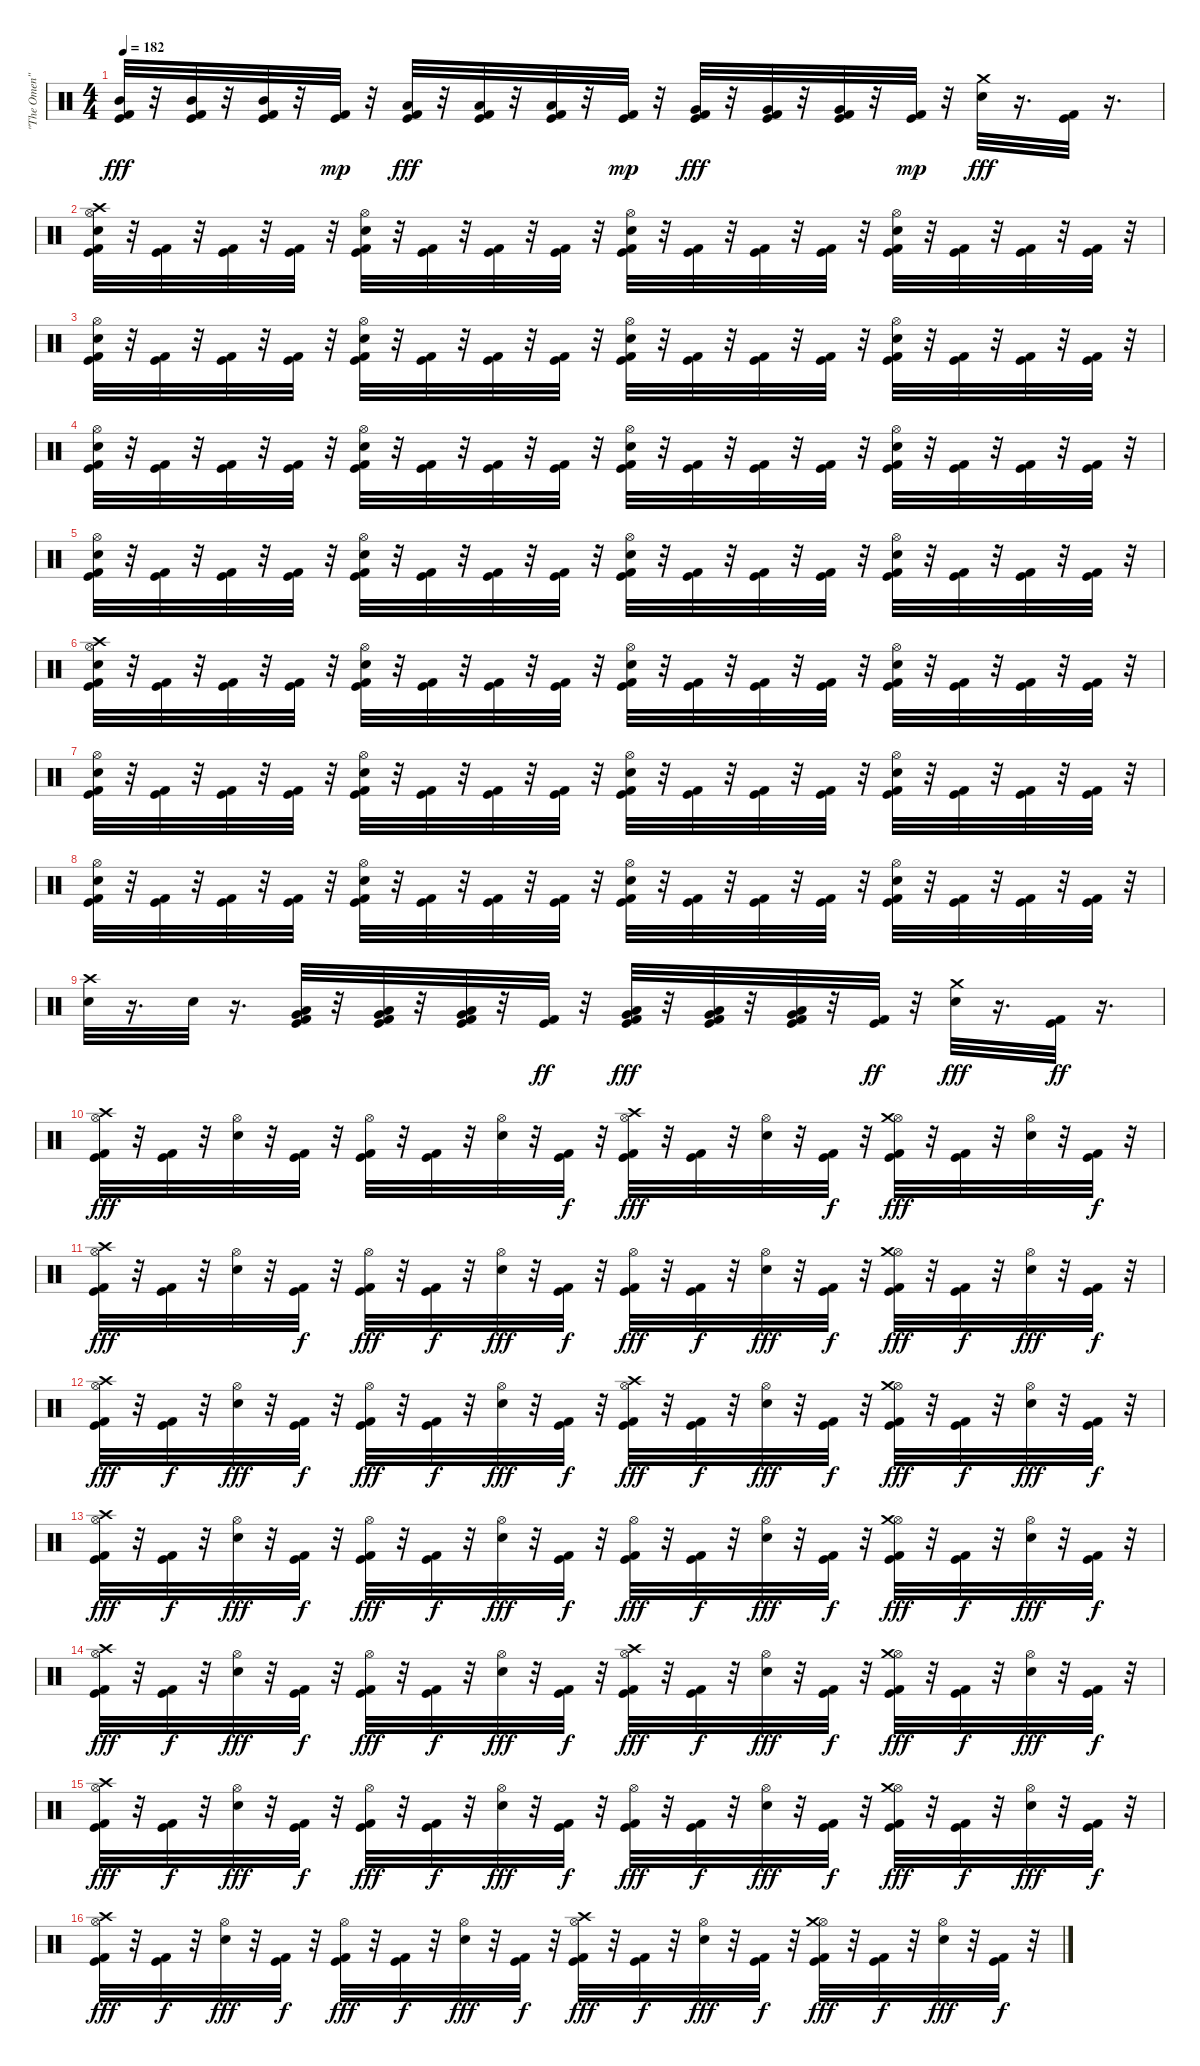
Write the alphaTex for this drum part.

\track ("\"The Omen\"" "\"The Omen\"") {instrument percussion}
\staff {score}
\articulation defaults
\ts (4 4)
\tempo 182
\clef neutral
\ks c
("Kick (hit)" "Kick (hit) 2" "Mid Tom (hit)").32{dy fff} r.32 ("Kick (hit)" "Kick (hit) 2" "Mid Tom (hit)").32 r.32 ("Kick (hit)" "Kick (hit) 2" "Mid Tom (hit)").32 r.32 ("Kick (hit)" "Kick (hit) 2").32{dy mp} r.32 ("Kick (hit)" "Kick (hit) 2" "Low Tom (hit)").32{dy fff} r.32 ("Kick (hit)" "Kick (hit) 2" "Low Tom (hit)").32 r.32 ("Kick (hit)" "Kick (hit) 2" "Low Tom (hit)").32 r.32 ("Kick (hit)" "Kick (hit) 2").32{dy mp} r.32 ("Kick (hit)" "Kick (hit) 2" "Very Low Tom (hit)").32{dy fff} r.32 ("Kick (hit)" "Kick (hit) 2" "Very Low Tom (hit)").32 r.32 ("Kick (hit)" "Kick (hit) 2" "Very Low Tom (hit)").32 r.32 ("Kick (hit)" "Kick (hit) 2").32{dy mp} r.32 ("Snare (hit) 2" "Crash medium (hit)").32{dy fff} r.16{d} ("Kick (hit)" "Kick (hit) 2").32 r.16{d} |
("Kick (hit)" "Kick (hit) 2" "Snare (hit) 2" "Hi-Hat (open)" "Crash high (hit)").32 r.32 ("Kick (hit)" "Kick (hit) 2").32 r.32 ("Kick (hit)" "Kick (hit) 2").32 r.32 ("Kick (hit)" "Kick (hit) 2").32 r.32 ("Kick (hit)" "Kick (hit) 2" "Snare (hit) 2" "Hi-Hat (open)").32 r.32 ("Kick (hit)" "Kick (hit) 2").32 r.32 ("Kick (hit)" "Kick (hit) 2").32 r.32 ("Kick (hit)" "Kick (hit) 2").32 r.32 ("Kick (hit)" "Kick (hit) 2" "Snare (hit) 2" "Hi-Hat (open)").32 r.32 ("Kick (hit)" "Kick (hit) 2").32 r.32 ("Kick (hit)" "Kick (hit) 2").32 r.32 ("Kick (hit)" "Kick (hit) 2").32 r.32 ("Kick (hit)" "Kick (hit) 2" "Snare (hit) 2" "Hi-Hat (open)").32 r.32 ("Kick (hit)" "Kick (hit) 2").32 r.32 ("Kick (hit)" "Kick (hit) 2").32 r.32 ("Kick (hit)" "Kick (hit) 2").32 r.32 |
("Kick (hit)" "Kick (hit) 2" "Snare (hit) 2" "Hi-Hat (open)").32 r.32 ("Kick (hit)" "Kick (hit) 2").32 r.32 ("Kick (hit)" "Kick (hit) 2").32 r.32 ("Kick (hit)" "Kick (hit) 2").32 r.32 ("Kick (hit)" "Kick (hit) 2" "Snare (hit) 2" "Hi-Hat (open)").32 r.32 ("Kick (hit)" "Kick (hit) 2").32 r.32 ("Kick (hit)" "Kick (hit) 2").32 r.32 ("Kick (hit)" "Kick (hit) 2").32 r.32 ("Kick (hit)" "Kick (hit) 2" "Snare (hit) 2" "Hi-Hat (open)").32 r.32 ("Kick (hit)" "Kick (hit) 2").32 r.32 ("Kick (hit)" "Kick (hit) 2").32 r.32 ("Kick (hit)" "Kick (hit) 2").32 r.32 ("Kick (hit)" "Kick (hit) 2" "Snare (hit) 2" "Hi-Hat (open)").32 r.32 ("Kick (hit)" "Kick (hit) 2").32 r.32 ("Kick (hit)" "Kick (hit) 2").32 r.32 ("Kick (hit)" "Kick (hit) 2").32 r.32 |
("Kick (hit)" "Kick (hit) 2" "Snare (hit) 2" "Hi-Hat (open)").32 r.32 ("Kick (hit)" "Kick (hit) 2").32 r.32 ("Kick (hit)" "Kick (hit) 2").32 r.32 ("Kick (hit)" "Kick (hit) 2").32 r.32 ("Kick (hit)" "Kick (hit) 2" "Snare (hit) 2" "Hi-Hat (open)").32 r.32 ("Kick (hit)" "Kick (hit) 2").32 r.32 ("Kick (hit)" "Kick (hit) 2").32 r.32 ("Kick (hit)" "Kick (hit) 2").32 r.32 ("Kick (hit)" "Kick (hit) 2" "Snare (hit) 2" "Hi-Hat (open)").32 r.32 ("Kick (hit)" "Kick (hit) 2").32 r.32 ("Kick (hit)" "Kick (hit) 2").32 r.32 ("Kick (hit)" "Kick (hit) 2").32 r.32 ("Kick (hit)" "Kick (hit) 2" "Snare (hit) 2" "Hi-Hat (open)").32 r.32 ("Kick (hit)" "Kick (hit) 2").32 r.32 ("Kick (hit)" "Kick (hit) 2").32 r.32 ("Kick (hit)" "Kick (hit) 2").32 r.32 |
("Kick (hit)" "Kick (hit) 2" "Snare (hit) 2" "Hi-Hat (open)").32 r.32 ("Kick (hit)" "Kick (hit) 2").32 r.32 ("Kick (hit)" "Kick (hit) 2").32 r.32 ("Kick (hit)" "Kick (hit) 2").32 r.32 ("Kick (hit)" "Kick (hit) 2" "Snare (hit) 2" "Hi-Hat (open)").32 r.32 ("Kick (hit)" "Kick (hit) 2").32 r.32 ("Kick (hit)" "Kick (hit) 2").32 r.32 ("Kick (hit)" "Kick (hit) 2").32 r.32 ("Kick (hit)" "Kick (hit) 2" "Snare (hit) 2" "Hi-Hat (open)").32 r.32 ("Kick (hit)" "Kick (hit) 2").32 r.32 ("Kick (hit)" "Kick (hit) 2").32 r.32 ("Kick (hit)" "Kick (hit) 2").32 r.32 ("Kick (hit)" "Kick (hit) 2" "Snare (hit) 2" "Hi-Hat (open)").32 r.32 ("Kick (hit)" "Kick (hit) 2").32 r.32 ("Kick (hit)" "Kick (hit) 2").32 r.32 ("Kick (hit)" "Kick (hit) 2").32 r.32 |
("Kick (hit)" "Kick (hit) 2" "Snare (hit) 2" "Hi-Hat (open)" "Crash high (hit)").32 r.32 ("Kick (hit)" "Kick (hit) 2").32 r.32 ("Kick (hit)" "Kick (hit) 2").32 r.32 ("Kick (hit)" "Kick (hit) 2").32 r.32 ("Kick (hit)" "Kick (hit) 2" "Snare (hit) 2" "Hi-Hat (open)").32 r.32 ("Kick (hit)" "Kick (hit) 2").32 r.32 ("Kick (hit)" "Kick (hit) 2").32 r.32 ("Kick (hit)" "Kick (hit) 2").32 r.32 ("Kick (hit)" "Kick (hit) 2" "Snare (hit) 2" "Hi-Hat (open)").32 r.32 ("Kick (hit)" "Kick (hit) 2").32 r.32 ("Kick (hit)" "Kick (hit) 2").32 r.32 ("Kick (hit)" "Kick (hit) 2").32 r.32 ("Kick (hit)" "Kick (hit) 2" "Snare (hit) 2" "Hi-Hat (open)").32 r.32 ("Kick (hit)" "Kick (hit) 2").32 r.32 ("Kick (hit)" "Kick (hit) 2").32 r.32 ("Kick (hit)" "Kick (hit) 2").32 r.32 |
("Kick (hit)" "Kick (hit) 2" "Snare (hit) 2" "Hi-Hat (open)").32 r.32 ("Kick (hit)" "Kick (hit) 2").32 r.32 ("Kick (hit)" "Kick (hit) 2").32 r.32 ("Kick (hit)" "Kick (hit) 2").32 r.32 ("Kick (hit)" "Kick (hit) 2" "Snare (hit) 2" "Hi-Hat (open)").32 r.32 ("Kick (hit)" "Kick (hit) 2").32 r.32 ("Kick (hit)" "Kick (hit) 2").32 r.32 ("Kick (hit)" "Kick (hit) 2").32 r.32 ("Kick (hit)" "Kick (hit) 2" "Snare (hit) 2" "Hi-Hat (open)").32 r.32 ("Kick (hit)" "Kick (hit) 2").32 r.32 ("Kick (hit)" "Kick (hit) 2").32 r.32 ("Kick (hit)" "Kick (hit) 2").32 r.32 ("Kick (hit)" "Kick (hit) 2" "Snare (hit) 2" "Hi-Hat (open)").32 r.32 ("Kick (hit)" "Kick (hit) 2").32 r.32 ("Kick (hit)" "Kick (hit) 2").32 r.32 ("Kick (hit)" "Kick (hit) 2").32 r.32 |
("Kick (hit)" "Kick (hit) 2" "Snare (hit) 2" "Hi-Hat (open)").32 r.32 ("Kick (hit)" "Kick (hit) 2").32 r.32 ("Kick (hit)" "Kick (hit) 2").32 r.32 ("Kick (hit)" "Kick (hit) 2").32 r.32 ("Kick (hit)" "Kick (hit) 2" "Snare (hit) 2" "Hi-Hat (open)").32 r.32 ("Kick (hit)" "Kick (hit) 2").32 r.32 ("Kick (hit)" "Kick (hit) 2").32 r.32 ("Kick (hit)" "Kick (hit) 2").32 r.32 ("Kick (hit)" "Kick (hit) 2" "Snare (hit) 2" "Hi-Hat (open)").32 r.32 ("Kick (hit)" "Kick (hit) 2").32 r.32 ("Kick (hit)" "Kick (hit) 2").32 r.32 ("Kick (hit)" "Kick (hit) 2").32 r.32 ("Kick (hit)" "Kick (hit) 2" "Snare (hit) 2" "Hi-Hat (open)").32 r.32 ("Kick (hit)" "Kick (hit) 2").32 r.32 ("Kick (hit)" "Kick (hit) 2").32 r.32 ("Kick (hit)" "Kick (hit) 2").32 r.32 |
("Snare (hit) 2" "Crash high (hit)").32 r.16{d} "Snare (hit) 2".32 r.16{d} ("Kick (hit)" "Kick (hit) 2" "Very Low Tom (hit)" "Low Tom (hit)").32 r.32 ("Kick (hit)" "Kick (hit) 2" "Very Low Tom (hit)" "Low Tom (hit)").32 r.32 ("Kick (hit)" "Kick (hit) 2" "Very Low Tom (hit)" "Low Tom (hit)").32 r.32 ("Kick (hit)" "Kick (hit) 2").32{dy ff} r.32 ("Kick (hit)" "Kick (hit) 2" "Low Floor Tom (hit)" "Very Low Tom (hit)").32{dy fff} r.32 ("Kick (hit)" "Kick (hit) 2" "Low Floor Tom (hit)" "Very Low Tom (hit)").32 r.32 ("Kick (hit)" "Kick (hit) 2" "Low Floor Tom (hit)" "Very Low Tom (hit)").32 r.32 ("Kick (hit)" "Kick (hit) 2").32{dy ff} r.32 ("Snare (hit) 2" "Crash medium (hit)").32{dy fff} r.16{d} ("Kick (hit)" "Kick (hit) 2").32{dy ff} r.16{d} |
("Kick (hit)" "Kick (hit) 2" "Hi-Hat (open)" "Crash high (hit)").32{dy fff} r.32 ("Kick (hit)" "Kick (hit) 2").32 r.32 ("Snare (hit) 2" "Hi-Hat (open)").32 r.32 ("Kick (hit)" "Kick (hit) 2").32 r.32 ("Kick (hit)" "Kick (hit) 2" "Hi-Hat (open)").32 r.32 ("Kick (hit)" "Kick (hit) 2").32 r.32 ("Snare (hit) 2" "Hi-Hat (open)").32 r.32 ("Kick (hit)" "Kick (hit) 2").32{dy f} r.32 ("Kick (hit)" "Kick (hit) 2" "Hi-Hat (open)" "Crash high (hit)").32{dy fff} r.32 ("Kick (hit)" "Kick (hit) 2").32 r.32 ("Snare (hit) 2" "Hi-Hat (open)").32 r.32 ("Kick (hit)" "Kick (hit) 2").32{dy f} r.32 ("Kick (hit)" "Kick (hit) 2" "Hi-Hat (open)" "Crash medium (hit)").32{dy fff} r.32 ("Kick (hit)" "Kick (hit) 2").32 r.32 ("Snare (hit) 2" "Hi-Hat (open)").32 r.32 ("Kick (hit)" "Kick (hit) 2").32{dy f} r.32 |
("Kick (hit)" "Kick (hit) 2" "Hi-Hat (open)" "Crash high (hit)").32{dy fff} r.32 ("Kick (hit)" "Kick (hit) 2").32 r.32 ("Snare (hit) 2" "Hi-Hat (open)").32 r.32 ("Kick (hit)" "Kick (hit) 2").32{dy f} r.32 ("Kick (hit)" "Kick (hit) 2" "Hi-Hat (open)").32{dy fff} r.32 ("Kick (hit)" "Kick (hit) 2").32{dy f} r.32 ("Snare (hit) 2" "Hi-Hat (open)").32{dy fff} r.32 ("Kick (hit)" "Kick (hit) 2").32{dy f} r.32 ("Kick (hit)" "Kick (hit) 2" "Hi-Hat (open)").32{dy fff} r.32 ("Kick (hit)" "Kick (hit) 2").32{dy f} r.32 ("Snare (hit) 2" "Hi-Hat (open)").32{dy fff} r.32 ("Kick (hit)" "Kick (hit) 2").32{dy f} r.32 ("Kick (hit)" "Kick (hit) 2" "Hi-Hat (open)" "Crash medium (hit)").32{dy fff} r.32 ("Kick (hit)" "Kick (hit) 2").32{dy f} r.32 ("Snare (hit) 2" "Hi-Hat (open)").32{dy fff} r.32 ("Kick (hit)" "Kick (hit) 2").32{dy f} r.32 |
("Kick (hit)" "Kick (hit) 2" "Hi-Hat (open)" "Crash high (hit)").32{dy fff} r.32 ("Kick (hit)" "Kick (hit) 2").32{dy f} r.32 ("Snare (hit) 2" "Hi-Hat (open)").32{dy fff} r.32 ("Kick (hit)" "Kick (hit) 2").32{dy f} r.32 ("Kick (hit)" "Kick (hit) 2" "Hi-Hat (open)").32{dy fff} r.32 ("Kick (hit)" "Kick (hit) 2").32{dy f} r.32 ("Snare (hit) 2" "Hi-Hat (open)").32{dy fff} r.32 ("Kick (hit)" "Kick (hit) 2").32{dy f} r.32 ("Kick (hit)" "Kick (hit) 2" "Hi-Hat (open)" "Crash high (hit)").32{dy fff} r.32 ("Kick (hit)" "Kick (hit) 2").32{dy f} r.32 ("Snare (hit) 2" "Hi-Hat (open)").32{dy fff} r.32 ("Kick (hit)" "Kick (hit) 2").32{dy f} r.32 ("Kick (hit)" "Kick (hit) 2" "Hi-Hat (open)" "Crash medium (hit)").32{dy fff} r.32 ("Kick (hit)" "Kick (hit) 2").32{dy f} r.32 ("Snare (hit) 2" "Hi-Hat (open)").32{dy fff} r.32 ("Kick (hit)" "Kick (hit) 2").32{dy f} r.32 |
("Kick (hit)" "Kick (hit) 2" "Hi-Hat (open)" "Crash high (hit)").32{dy fff} r.32 ("Kick (hit)" "Kick (hit) 2").32{dy f} r.32 ("Snare (hit) 2" "Hi-Hat (open)").32{dy fff} r.32 ("Kick (hit)" "Kick (hit) 2").32{dy f} r.32 ("Kick (hit)" "Kick (hit) 2" "Hi-Hat (open)").32{dy fff} r.32 ("Kick (hit)" "Kick (hit) 2").32{dy f} r.32 ("Snare (hit) 2" "Hi-Hat (open)").32{dy fff} r.32 ("Kick (hit)" "Kick (hit) 2").32{dy f} r.32 ("Kick (hit)" "Kick (hit) 2" "Hi-Hat (open)").32{dy fff} r.32 ("Kick (hit)" "Kick (hit) 2").32{dy f} r.32 ("Snare (hit) 2" "Hi-Hat (open)").32{dy fff} r.32 ("Kick (hit)" "Kick (hit) 2").32{dy f} r.32 ("Kick (hit)" "Kick (hit) 2" "Hi-Hat (open)" "Crash medium (hit)").32{dy fff} r.32 ("Kick (hit)" "Kick (hit) 2").32{dy f} r.32 ("Snare (hit) 2" "Hi-Hat (open)").32{dy fff} r.32 ("Kick (hit)" "Kick (hit) 2").32{dy f} r.32 |
("Kick (hit)" "Kick (hit) 2" "Hi-Hat (open)" "Crash high (hit)").32{dy fff} r.32 ("Kick (hit)" "Kick (hit) 2").32{dy f} r.32 ("Snare (hit) 2" "Hi-Hat (open)").32{dy fff} r.32 ("Kick (hit)" "Kick (hit) 2").32{dy f} r.32 ("Kick (hit)" "Kick (hit) 2" "Hi-Hat (open)").32{dy fff} r.32 ("Kick (hit)" "Kick (hit) 2").32{dy f} r.32 ("Snare (hit) 2" "Hi-Hat (open)").32{dy fff} r.32 ("Kick (hit)" "Kick (hit) 2").32{dy f} r.32 ("Kick (hit)" "Kick (hit) 2" "Hi-Hat (open)" "Crash high (hit)").32{dy fff} r.32 ("Kick (hit)" "Kick (hit) 2").32{dy f} r.32 ("Snare (hit) 2" "Hi-Hat (open)").32{dy fff} r.32 ("Kick (hit)" "Kick (hit) 2").32{dy f} r.32 ("Kick (hit)" "Kick (hit) 2" "Hi-Hat (open)" "Crash medium (hit)").32{dy fff} r.32 ("Kick (hit)" "Kick (hit) 2").32{dy f} r.32 ("Snare (hit) 2" "Hi-Hat (open)").32{dy fff} r.32 ("Kick (hit)" "Kick (hit) 2").32{dy f} r.32 |
("Kick (hit)" "Kick (hit) 2" "Hi-Hat (open)" "Crash high (hit)").32{dy fff} r.32 ("Kick (hit)" "Kick (hit) 2").32{dy f} r.32 ("Snare (hit) 2" "Hi-Hat (open)").32{dy fff} r.32 ("Kick (hit)" "Kick (hit) 2").32{dy f} r.32 ("Kick (hit)" "Kick (hit) 2" "Hi-Hat (open)").32{dy fff} r.32 ("Kick (hit)" "Kick (hit) 2").32{dy f} r.32 ("Snare (hit) 2" "Hi-Hat (open)").32{dy fff} r.32 ("Kick (hit)" "Kick (hit) 2").32{dy f} r.32 ("Kick (hit)" "Kick (hit) 2" "Hi-Hat (open)").32{dy fff} r.32 ("Kick (hit)" "Kick (hit) 2").32{dy f} r.32 ("Snare (hit) 2" "Hi-Hat (open)").32{dy fff} r.32 ("Kick (hit)" "Kick (hit) 2").32{dy f} r.32 ("Kick (hit)" "Kick (hit) 2" "Hi-Hat (open)" "Crash medium (hit)").32{dy fff} r.32 ("Kick (hit)" "Kick (hit) 2").32{dy f} r.32 ("Snare (hit) 2" "Hi-Hat (open)").32{dy fff} r.32 ("Kick (hit)" "Kick (hit) 2").32{dy f} r.32 |
("Kick (hit)" "Kick (hit) 2" "Hi-Hat (open)" "Crash high (hit)").32{dy fff} r.32 ("Kick (hit)" "Kick (hit) 2").32{dy f} r.32 ("Snare (hit) 2" "Hi-Hat (open)").32{dy fff} r.32 ("Kick (hit)" "Kick (hit) 2").32{dy f} r.32 ("Kick (hit)" "Kick (hit) 2" "Hi-Hat (open)").32{dy fff} r.32 ("Kick (hit)" "Kick (hit) 2").32{dy f} r.32 ("Snare (hit) 2" "Hi-Hat (open)").32{dy fff} r.32 ("Kick (hit)" "Kick (hit) 2").32{dy f} r.32 ("Kick (hit)" "Kick (hit) 2" "Hi-Hat (open)" "Crash high (hit)").32{dy fff} r.32 ("Kick (hit)" "Kick (hit) 2").32{dy f} r.32 ("Snare (hit) 2" "Hi-Hat (open)").32{dy fff} r.32 ("Kick (hit)" "Kick (hit) 2").32{dy f} r.32 ("Kick (hit)" "Kick (hit) 2" "Hi-Hat (open)" "Crash medium (hit)").32{dy fff} r.32 ("Kick (hit)" "Kick (hit) 2").32{dy f} r.32 ("Snare (hit) 2" "Hi-Hat (open)").32{dy fff} r.32 ("Kick (hit)" "Kick (hit) 2").32{dy f} r.32
